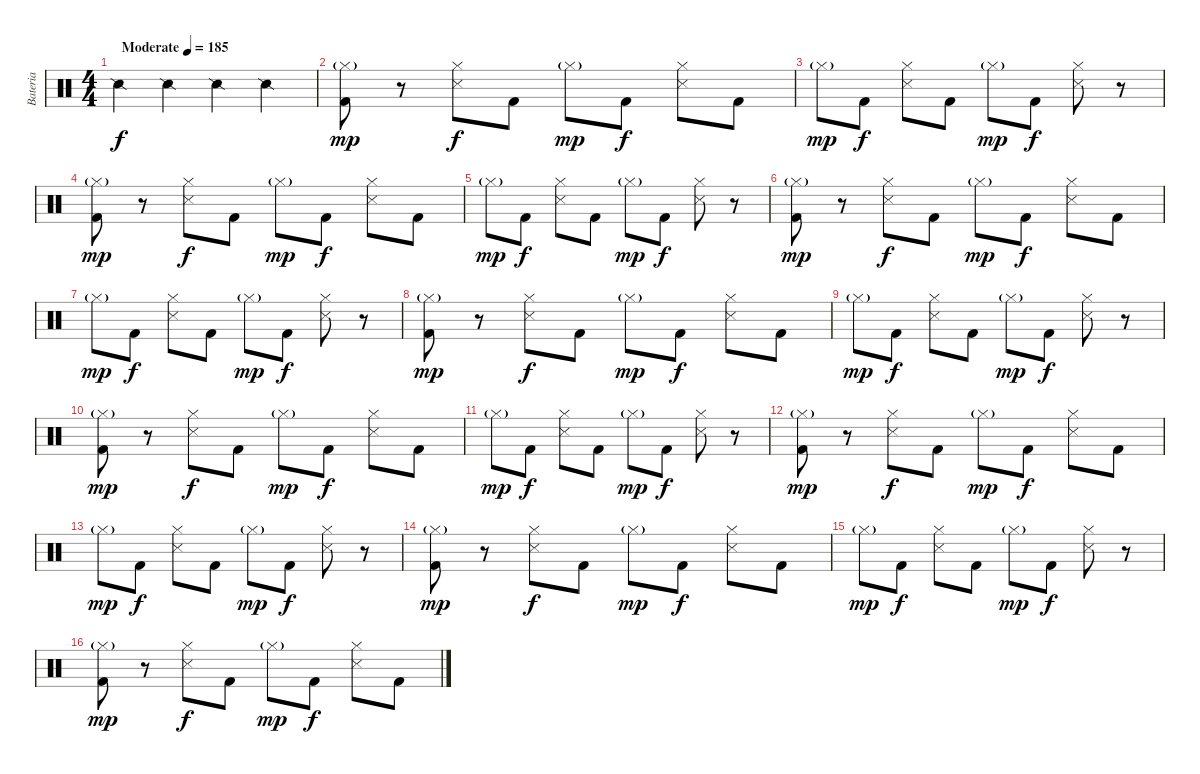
\track ("Bateria" "Bateria") {instrument percussion}
\staff {score}
\articulation defaults
\ts (4 4)
\tempo (185 "Moderate")
\clef neutral
\ks c "Snare (side stick) 2".4{dy f} "Snare (side stick) 2".4 "Snare (side stick) 2".4 "Snare (side stick) 2".4
|
("Hi-Hat (closed)"{g} "Kick (hit) 2").8{dy mp} r.8 ("Hi-Hat (closed)" "Snare (side stick) 3").8{dy f} "Kick (hit) 2".8 "Hi-Hat (closed)"{g}.8{dy mp} "Kick (hit) 2".8{dy f} ("Hi-Hat (closed)" "Snare (side stick) 3").8 "Kick (hit) 2".8 |
"Hi-Hat (closed)"{g}.8{dy mp} "Kick (hit) 2".8{dy f} ("Hi-Hat (closed)" "Snare (side stick) 3").8 "Kick (hit) 2".8 "Hi-Hat (closed)"{g}.8{dy mp} "Kick (hit) 2".8{dy f} ("Hi-Hat (closed)" "Snare (side stick) 3").8 r.8 |
("Hi-Hat (closed)"{g} "Kick (hit) 2").8{dy mp} r.8 ("Hi-Hat (closed)" "Snare (side stick) 3").8{dy f} "Kick (hit) 2".8 "Hi-Hat (closed)"{g}.8{dy mp} "Kick (hit) 2".8{dy f} ("Hi-Hat (closed)" "Snare (side stick) 3").8 "Kick (hit) 2".8 |
"Hi-Hat (closed)"{g}.8{dy mp} "Kick (hit) 2".8{dy f} ("Hi-Hat (closed)" "Snare (side stick) 3").8 "Kick (hit) 2".8 "Hi-Hat (closed)"{g}.8{dy mp} "Kick (hit) 2".8{dy f} ("Hi-Hat (closed)" "Snare (side stick) 3").8 r.8 |
("Hi-Hat (closed)"{g} "Kick (hit) 2").8{dy mp} r.8 ("Hi-Hat (closed)" "Snare (side stick) 3").8{dy f} "Kick (hit) 2".8 "Hi-Hat (closed)"{g}.8{dy mp} "Kick (hit) 2".8{dy f} ("Hi-Hat (closed)" "Snare (side stick) 3").8 "Kick (hit) 2".8 |
"Hi-Hat (closed)"{g}.8{dy mp} "Kick (hit) 2".8{dy f} ("Hi-Hat (closed)" "Snare (side stick) 3").8 "Kick (hit) 2".8 "Hi-Hat (closed)"{g}.8{dy mp} "Kick (hit) 2".8{dy f} ("Hi-Hat (closed)" "Snare (side stick) 3").8 r.8 |
("Hi-Hat (closed)"{g} "Kick (hit) 2").8{dy mp} r.8 ("Hi-Hat (closed)" "Snare (side stick) 3").8{dy f} "Kick (hit) 2".8 "Hi-Hat (closed)"{g}.8{dy mp} "Kick (hit) 2".8{dy f} ("Hi-Hat (closed)" "Snare (side stick) 3").8 "Kick (hit) 2".8 |
"Hi-Hat (closed)"{g}.8{dy mp} "Kick (hit) 2".8{dy f} ("Hi-Hat (closed)" "Snare (side stick) 3").8 "Kick (hit) 2".8 "Hi-Hat (closed)"{g}.8{dy mp} "Kick (hit) 2".8{dy f} ("Hi-Hat (closed)" "Snare (side stick) 3").8 r.8 |
("Hi-Hat (closed)"{g} "Kick (hit) 2").8{dy mp} r.8 ("Hi-Hat (closed)" "Snare (side stick) 3").8{dy f} "Kick (hit) 2".8 "Hi-Hat (closed)"{g}.8{dy mp} "Kick (hit) 2".8{dy f} ("Hi-Hat (closed)" "Snare (side stick) 3").8 "Kick (hit) 2".8 |
"Hi-Hat (closed)"{g}.8{dy mp} "Kick (hit) 2".8{dy f} ("Hi-Hat (closed)" "Snare (side stick) 3").8 "Kick (hit) 2".8 "Hi-Hat (closed)"{g}.8{dy mp} "Kick (hit) 2".8{dy f} ("Hi-Hat (closed)" "Snare (side stick) 3").8 r.8 |
("Hi-Hat (closed)"{g} "Kick (hit) 2").8{dy mp} r.8 ("Hi-Hat (closed)" "Snare (side stick) 3").8{dy f} "Kick (hit) 2".8 "Hi-Hat (closed)"{g}.8{dy mp} "Kick (hit) 2".8{dy f} ("Hi-Hat (closed)" "Snare (side stick) 3").8 "Kick (hit) 2".8 |
"Hi-Hat (closed)"{g}.8{dy mp} "Kick (hit) 2".8{dy f} ("Hi-Hat (closed)" "Snare (side stick) 3").8 "Kick (hit) 2".8 "Hi-Hat (closed)"{g}.8{dy mp} "Kick (hit) 2".8{dy f} ("Hi-Hat (closed)" "Snare (side stick) 3").8 r.8 |
("Hi-Hat (closed)"{g} "Kick (hit) 2").8{dy mp} r.8 ("Hi-Hat (closed)" "Snare (side stick) 3").8{dy f} "Kick (hit) 2".8 "Hi-Hat (closed)"{g}.8{dy mp} "Kick (hit) 2".8{dy f} ("Hi-Hat (closed)" "Snare (side stick) 3").8 "Kick (hit) 2".8 |
"Hi-Hat (closed)"{g}.8{dy mp} "Kick (hit) 2".8{dy f} ("Hi-Hat (closed)" "Snare (side stick) 3").8 "Kick (hit) 2".8 "Hi-Hat (closed)"{g}.8{dy mp} "Kick (hit) 2".8{dy f} ("Hi-Hat (closed)" "Snare (side stick) 3").8 r.8 |
("Hi-Hat (closed)"{g} "Kick (hit) 2").8{dy mp} r.8 ("Hi-Hat (closed)" "Snare (side stick) 3").8{dy f} "Kick (hit) 2".8 "Hi-Hat (closed)"{g}.8{dy mp} "Kick (hit) 2".8{dy f} ("Hi-Hat (closed)" "Snare (side stick) 3").8 "Kick (hit) 2".8
